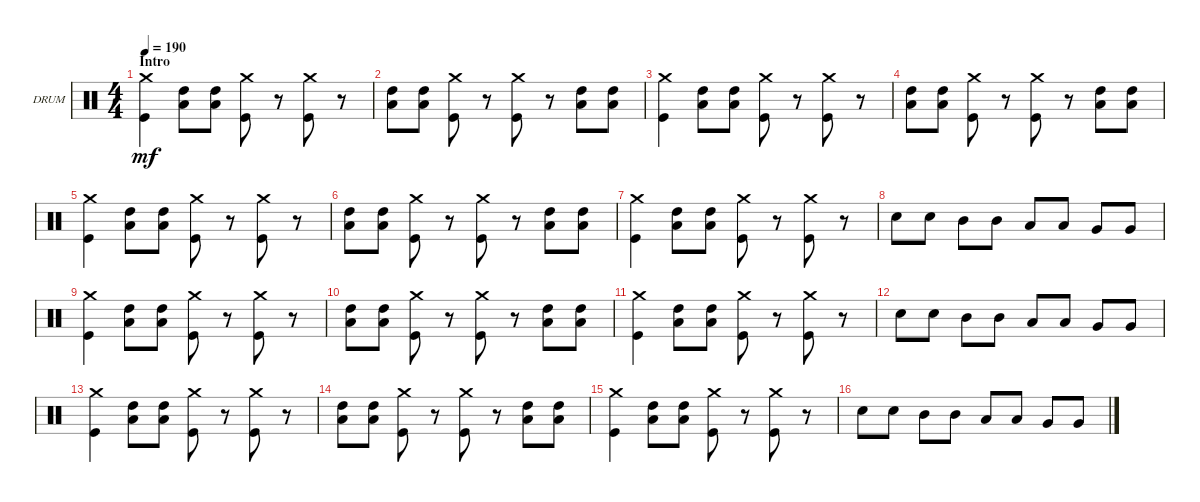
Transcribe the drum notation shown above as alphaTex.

\defaultSystemsLayout 4
\bracketExtendMode groupsimilarinstruments
\firstSystemTrackNameOrientation horizontal
\otherSystemsTrackNameOrientation horizontal
\track ("Drums" "DRUM") {instrument percussion}
\staff {score}
\articulation defaults
\ts (4 4)
\section ("" "Intro")
\tempo 190
\clef neutral
\ks c
("Kick (hit)" "Crash medium (hit)").4{dy mf} ("High Tom (hit)" "Low Tom (hit)").8 ("High Tom (hit)" "Low Tom (hit)").8 ("Kick (hit)" "Crash medium (hit)").8 r.8 ("Kick (hit)" "Crash medium (hit)").8 r.8 |
("High Tom (hit)" "Low Tom (hit)").8 ("High Tom (hit)" "Low Tom (hit)").8 ("Kick (hit)" "Crash medium (hit)").8 r.8 ("Kick (hit)" "Crash medium (hit)").8 r.8 ("High Tom (hit)" "Low Tom (hit)").8 ("High Tom (hit)" "Low Tom (hit)").8 |
("Kick (hit)" "Crash medium (hit)").4 ("High Tom (hit)" "Low Tom (hit)").8 ("High Tom (hit)" "Low Tom (hit)").8 ("Kick (hit)" "Crash medium (hit)").8 r.8 ("Kick (hit)" "Crash medium (hit)").8 r.8 |
("High Tom (hit)" "Low Tom (hit)").8 ("High Tom (hit)" "Low Tom (hit)").8 ("Kick (hit)" "Crash medium (hit)").8 r.8 ("Kick (hit)" "Crash medium (hit)").8 r.8 ("High Tom (hit)" "Low Tom (hit)").8 ("High Tom (hit)" "Low Tom (hit)").8 |
("Kick (hit)" "Crash medium (hit)").4 ("High Tom (hit)" "Low Tom (hit)").8 ("High Tom (hit)" "Low Tom (hit)").8 ("Kick (hit)" "Crash medium (hit)").8 r.8 ("Kick (hit)" "Crash medium (hit)").8 r.8 |
("High Tom (hit)" "Low Tom (hit)").8 ("High Tom (hit)" "Low Tom (hit)").8 ("Kick (hit)" "Crash medium (hit)").8 r.8 ("Kick (hit)" "Crash medium (hit)").8 r.8 ("High Tom (hit)" "Low Tom (hit)").8 ("High Tom (hit)" "Low Tom (hit)").8 |
("Kick (hit)" "Crash medium (hit)").4 ("High Tom (hit)" "Low Tom (hit)").8 ("High Tom (hit)" "Low Tom (hit)").8 ("Kick (hit)" "Crash medium (hit)").8 r.8 ("Kick (hit)" "Crash medium (hit)").8 r.8 |
"Snare (hit) 2".8 "Snare (hit) 2".8 "Mid Tom (hit)".8 "Mid Tom (hit)".8 "Low Tom (hit)".8 "Low Tom (hit)".8 "Very Low Tom (hit)".8 "Very Low Tom (hit)".8 |
("Kick (hit)" "Crash medium (hit)").4 ("High Tom (hit)" "Low Tom (hit)").8 ("High Tom (hit)" "Low Tom (hit)").8 ("Kick (hit)" "Crash medium (hit)").8 r.8 ("Kick (hit)" "Crash medium (hit)").8 r.8 |
("High Tom (hit)" "Low Tom (hit)").8 ("High Tom (hit)" "Low Tom (hit)").8 ("Kick (hit)" "Crash medium (hit)").8 r.8 ("Kick (hit)" "Crash medium (hit)").8 r.8 ("High Tom (hit)" "Low Tom (hit)").8 ("High Tom (hit)" "Low Tom (hit)").8 |
("Kick (hit)" "Crash medium (hit)").4 ("High Tom (hit)" "Low Tom (hit)").8 ("High Tom (hit)" "Low Tom (hit)").8 ("Kick (hit)" "Crash medium (hit)").8 r.8 ("Kick (hit)" "Crash medium (hit)").8 r.8 |
"Snare (hit) 2".8 "Snare (hit) 2".8 "Mid Tom (hit)".8 "Mid Tom (hit)".8 "Low Tom (hit)".8 "Low Tom (hit)".8 "Very Low Tom (hit)".8 "Very Low Tom (hit)".8 |
("Kick (hit)" "Crash medium (hit)").4 ("High Tom (hit)" "Low Tom (hit)").8 ("High Tom (hit)" "Low Tom (hit)").8 ("Kick (hit)" "Crash medium (hit)").8 r.8 ("Kick (hit)" "Crash medium (hit)").8 r.8 |
("High Tom (hit)" "Low Tom (hit)").8 ("High Tom (hit)" "Low Tom (hit)").8 ("Kick (hit)" "Crash medium (hit)").8 r.8 ("Kick (hit)" "Crash medium (hit)").8 r.8 ("High Tom (hit)" "Low Tom (hit)").8 ("High Tom (hit)" "Low Tom (hit)").8 |
("Kick (hit)" "Crash medium (hit)").4 ("High Tom (hit)" "Low Tom (hit)").8 ("High Tom (hit)" "Low Tom (hit)").8 ("Kick (hit)" "Crash medium (hit)").8 r.8 ("Kick (hit)" "Crash medium (hit)").8 r.8 |
"Snare (hit) 2".8 "Snare (hit) 2".8 "Mid Tom (hit)".8 "Mid Tom (hit)".8 "Low Tom (hit)".8 "Low Tom (hit)".8 "Very Low Tom (hit)".8 "Very Low Tom (hit)".8
